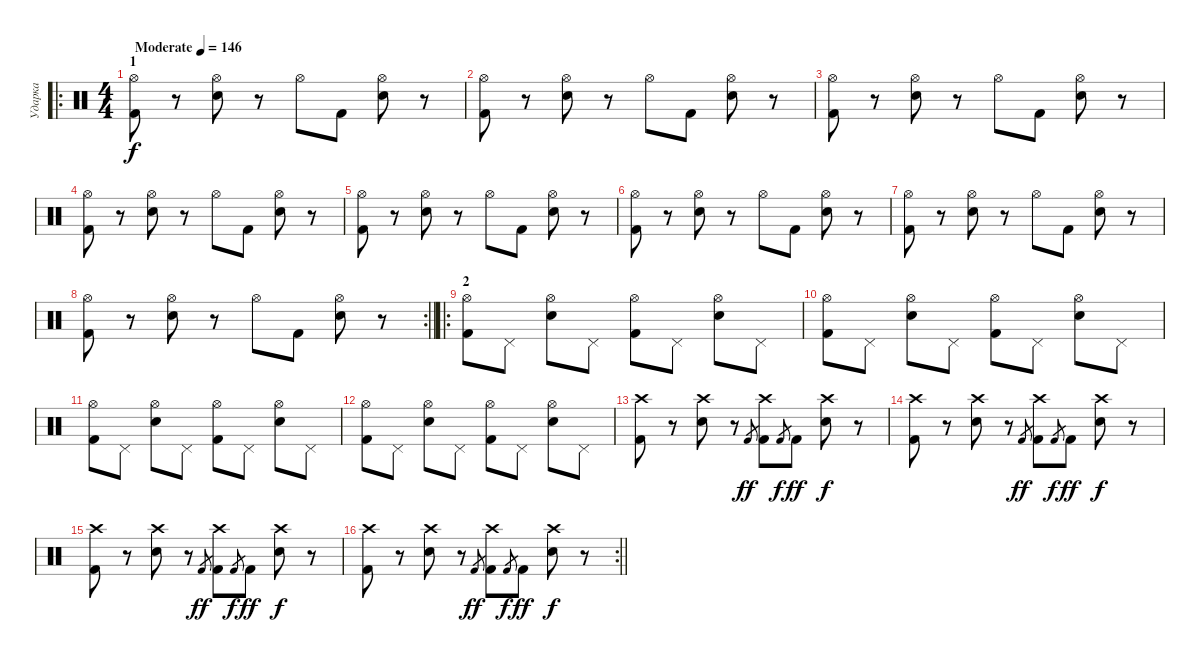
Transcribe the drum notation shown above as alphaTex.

\track ("Ударка" "Ударка") {instrument percussion}
\staff {score}
\articulation defaults
\ro
\ts (4 4)
\section ("" "1")
\tempo (146 "Moderate")
\clef neutral
\ks c
("Hi-Hat (open)" "Kick (hit) 2").8{dy f} r.8 ("Hi-Hat (open)" "Electric Snare (hit)").8 r.8 "Hi-Hat (open)".8 "Kick (hit) 2".8 ("Hi-Hat (open)" "Electric Snare (hit)").8 r.8 |
("Hi-Hat (open)" "Kick (hit) 2").8 r.8 ("Hi-Hat (open)" "Electric Snare (hit)").8 r.8 "Hi-Hat (open)".8 "Kick (hit) 2".8 ("Hi-Hat (open)" "Electric Snare (hit)").8 r.8 |
("Hi-Hat (open)" "Kick (hit) 2").8 r.8 ("Hi-Hat (open)" "Electric Snare (hit)").8 r.8 "Hi-Hat (open)".8 "Kick (hit) 2".8 ("Hi-Hat (open)" "Electric Snare (hit)").8 r.8 |
("Hi-Hat (open)" "Kick (hit) 2").8 r.8 ("Hi-Hat (open)" "Electric Snare (hit)").8 r.8 "Hi-Hat (open)".8 "Kick (hit) 2".8 ("Hi-Hat (open)" "Electric Snare (hit)").8 r.8 |
("Hi-Hat (open)" "Kick (hit) 2").8 r.8 ("Hi-Hat (open)" "Electric Snare (hit)").8 r.8 "Hi-Hat (open)".8 "Kick (hit) 2".8 ("Hi-Hat (open)" "Electric Snare (hit)").8 r.8 |
("Hi-Hat (open)" "Kick (hit) 2").8 r.8 ("Hi-Hat (open)" "Electric Snare (hit)").8 r.8 "Hi-Hat (open)".8 "Kick (hit) 2".8 ("Hi-Hat (open)" "Electric Snare (hit)").8 r.8 |
("Hi-Hat (open)" "Kick (hit) 2").8 r.8 ("Hi-Hat (open)" "Electric Snare (hit)").8 r.8 "Hi-Hat (open)".8 "Kick (hit) 2".8 ("Hi-Hat (open)" "Electric Snare (hit)").8 r.8 |
\rc 2
\barLineRight lightlight
("Hi-Hat (open)" "Kick (hit) 2").8 r.8 ("Hi-Hat (open)" "Electric Snare (hit)").8 r.8 "Hi-Hat (open)".8 "Kick (hit) 2".8 ("Hi-Hat (open)" "Electric Snare (hit)").8 r.8 |
\ro
\section ("" "2")
("Hi-Hat (open)" "Kick (hit) 2").8 "Pedal Hi-Hat (hit)".8 ("Hi-Hat (open)" "Electric Snare (hit)").8 "Pedal Hi-Hat (hit)".8 ("Hi-Hat (open)" "Kick (hit) 2").8 "Pedal Hi-Hat (hit)".8 ("Hi-Hat (open)" "Electric Snare (hit)").8 "Pedal Hi-Hat (hit)".8 |
("Hi-Hat (open)" "Kick (hit) 2").8 "Pedal Hi-Hat (hit)".8 ("Hi-Hat (open)" "Electric Snare (hit)").8 "Pedal Hi-Hat (hit)".8 ("Hi-Hat (open)" "Kick (hit) 2").8 "Pedal Hi-Hat (hit)".8 ("Hi-Hat (open)" "Electric Snare (hit)").8 "Pedal Hi-Hat (hit)".8 |
("Hi-Hat (open)" "Kick (hit) 2").8 "Pedal Hi-Hat (hit)".8 ("Hi-Hat (open)" "Electric Snare (hit)").8 "Pedal Hi-Hat (hit)".8 ("Hi-Hat (open)" "Kick (hit) 2").8 "Pedal Hi-Hat (hit)".8 ("Hi-Hat (open)" "Electric Snare (hit)").8 "Pedal Hi-Hat (hit)".8 |
("Hi-Hat (open)" "Kick (hit) 2").8 "Pedal Hi-Hat (hit)".8 ("Hi-Hat (open)" "Electric Snare (hit)").8 "Pedal Hi-Hat (hit)".8 ("Hi-Hat (open)" "Kick (hit) 2").8 "Pedal Hi-Hat (hit)".8 ("Hi-Hat (open)" "Electric Snare (hit)").8 "Pedal Hi-Hat (hit)".8 |
("Crash high (hit)" "Kick (hit) 2").8 r.8 ("Crash high (hit)" "Electric Snare (hit)").8 r.8 "Kick (hit) 2".8{gr dy ff} ("Crash high (hit)" "Kick (hit) 2").8 "Kick (hit) 2".8{gr dy f} "Kick (hit) 2".8{dy ff} ("Crash high (hit)" "Electric Snare (hit)").8{dy f} r.8 |
("Crash high (hit)" "Kick (hit) 2").8 r.8 ("Crash high (hit)" "Electric Snare (hit)").8 r.8 "Kick (hit) 2".8{gr dy ff} ("Crash high (hit)" "Kick (hit) 2").8 "Kick (hit) 2".8{gr dy f} "Kick (hit) 2".8{dy ff} ("Crash high (hit)" "Electric Snare (hit)").8{dy f} r.8 |
("Crash high (hit)" "Kick (hit) 2").8 r.8 ("Crash high (hit)" "Electric Snare (hit)").8 r.8 "Kick (hit) 2".8{gr dy ff} ("Crash high (hit)" "Kick (hit) 2").8 "Kick (hit) 2".8{gr dy f} "Kick (hit) 2".8{dy ff} ("Crash high (hit)" "Electric Snare (hit)").8{dy f} r.8 |
\rc 2
\barLineRight lightlight
("Crash high (hit)" "Kick (hit) 2").8 r.8 ("Crash high (hit)" "Electric Snare (hit)").8 r.8 "Kick (hit) 2".8{gr dy ff} ("Crash high (hit)" "Kick (hit) 2").8 "Kick (hit) 2".8{gr dy f} "Kick (hit) 2".8{dy ff} ("Crash high (hit)" "Electric Snare (hit)").8{dy f} r.8
